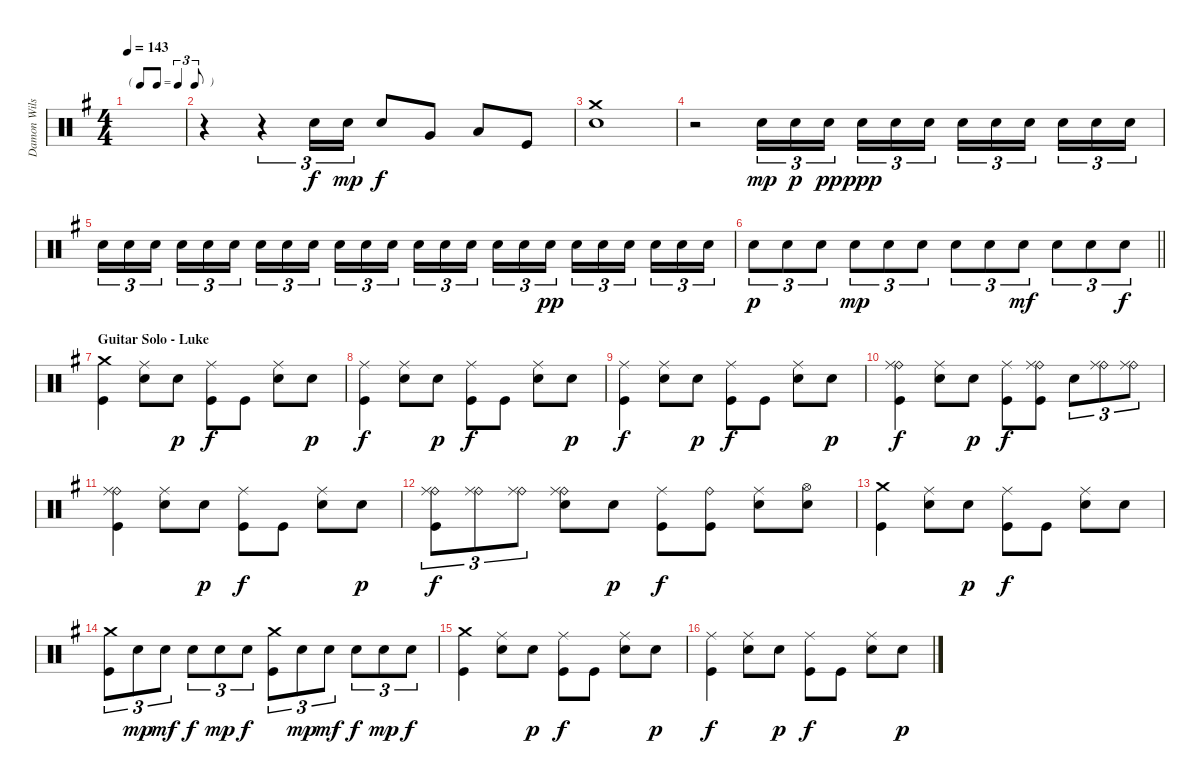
\track ("Damon Wilson" "Damon Wils") {instrument percussion}
\staff {score}
\articulation defaults
\ts (4 4)
\tf triplet8th
\tempo 143
\clef neutral
\ks g
|
r.4 r.4{tu (3 2)} "Electric Snare (hit)".16{tu (3 2)} "Electric Snare (hit)".16{tu (3 2) dy mp} "Electric Snare (hit)".8{dy f} "Very Low Tom (hit)".8 "Low Floor Tom (hit)".8 "Kick (hit)".8 |
("Crash medium (hit)" "Electric Snare (hit)").1 |
r.2 "Electric Snare (hit)".16{tu (3 2) dy mp} "Electric Snare (hit)".16{tu (3 2) dy p} "Electric Snare (hit)".16{tu (3 2) dy pp beam splitsecondary} "Electric Snare (hit)".16{tu (3 2) dy ppp} "Electric Snare (hit)".16{tu (3 2)} "Electric Snare (hit)".16{tu (3 2)} "Electric Snare (hit)".16{tu (3 2)} "Electric Snare (hit)".16{tu (3 2)} "Electric Snare (hit)".16{tu (3 2) beam splitsecondary} "Electric Snare (hit)".16{tu (3 2)} "Electric Snare (hit)".16{tu (3 2)} "Electric Snare (hit)".16{tu (3 2)} |
"Electric Snare (hit)".16{tu (3 2)} "Electric Snare (hit)".16{tu (3 2)} "Electric Snare (hit)".16{tu (3 2) beam splitsecondary} "Electric Snare (hit)".16{tu (3 2)} "Electric Snare (hit)".16{tu (3 2)} "Electric Snare (hit)".16{tu (3 2)} "Electric Snare (hit)".16{tu (3 2)} "Electric Snare (hit)".16{tu (3 2)} "Electric Snare (hit)".16{tu (3 2) beam splitsecondary} "Electric Snare (hit)".16{tu (3 2)} "Electric Snare (hit)".16{tu (3 2)} "Electric Snare (hit)".16{tu (3 2)} "Electric Snare (hit)".16{tu (3 2)} "Electric Snare (hit)".16{tu (3 2)} "Electric Snare (hit)".16{tu (3 2) beam splitsecondary} "Electric Snare (hit)".16{tu (3 2)} "Electric Snare (hit)".16{tu (3 2)} "Electric Snare (hit)".16{tu (3 2) dy pp} "Electric Snare (hit)".16{tu (3 2)} "Electric Snare (hit)".16{tu (3 2)} "Electric Snare (hit)".16{tu (3 2) beam splitsecondary} "Electric Snare (hit)".16{tu (3 2)} "Electric Snare (hit)".16{tu (3 2)} "Electric Snare (hit)".16{tu (3 2)} |
\barLineRight lightlight "Electric Snare (hit)".8{tu (3 2) dy p} "Electric Snare (hit)".8{tu (3 2)} "Electric Snare (hit)".8{tu (3 2)} "Electric Snare (hit)".8{tu (3 2) dy mp} "Electric Snare (hit)".8{tu (3 2)} "Electric Snare (hit)".8{tu (3 2)} "Electric Snare (hit)".8{tu (3 2)} "Electric Snare (hit)".8{tu (3 2)} "Electric Snare (hit)".8{tu (3 2) dy mf} "Electric Snare (hit)".8{tu (3 2)} "Electric Snare (hit)".8{tu (3 2)} "Electric Snare (hit)".8{tu (3 2) dy f}
|
\section ("" "Guitar Solo - Luke")
("Crash medium (hit)" "Kick (hit)").4 ("Ride (middle)" "Electric Snare (hit)").8 "Electric Snare (hit)".8{dy p} ("Ride (middle)" "Kick (hit)").8{dy f} "Kick (hit)".8 ("Ride (middle)" "Electric Snare (hit)").8 "Electric Snare (hit)".8{dy p} |
("Ride (middle)" "Kick (hit)").4{dy f} ("Ride (middle)" "Electric Snare (hit)").8 "Electric Snare (hit)".8{dy p} ("Ride (middle)" "Kick (hit)").8{dy f} "Kick (hit)".8 ("Ride (middle)" "Electric Snare (hit)").8 "Electric Snare (hit)".8{dy p} |
("Ride (middle)" "Kick (hit)").4{dy f} ("Ride (middle)" "Electric Snare (hit)").8 "Electric Snare (hit)".8{dy p} ("Ride (middle)" "Kick (hit)").8{dy f} "Kick (hit)".8 ("Ride (middle)" "Electric Snare (hit)").8 "Electric Snare (hit)".8{dy p} |
("Ride (bell)" "Ride (middle)" "Kick (hit)").4{dy f} ("Ride (middle)" "Electric Snare (hit)").8 "Electric Snare (hit)".8{dy p} ("Ride (middle)" "Kick (hit)").8{dy f} ("Ride (bell)" "Ride (middle)" "Kick (hit)").8 "Electric Snare (hit)".8{tu (3 2)} ("Ride (bell)" "Ride (middle)").8{tu (3 2)} ("Ride (bell)" "Ride (middle)").8{tu (3 2)} |
("Ride (bell)" "Ride (middle)" "Kick (hit)").4 ("Ride (middle)" "Electric Snare (hit)").8 "Electric Snare (hit)".8{dy p} ("Ride (middle)" "Kick (hit)").8{dy f} "Kick (hit)".8 ("Ride (middle)" "Electric Snare (hit)").8 "Electric Snare (hit)".8{dy p} |
("Ride (bell)" "Ride (middle)" "Kick (hit)").8{tu (3 2) dy f} ("Ride (bell)" "Ride (middle)").8{tu (3 2)} ("Ride (bell)" "Ride (middle)").8{tu (3 2)} ("Ride (bell)" "Ride (middle)" "Electric Snare (hit)").8 "Electric Snare (hit)".8{dy p} ("Ride (middle)" "Kick (hit)").8{dy f} ("Ride (bell)" "Kick (hit)").8 ("Ride (middle)" "Electric Snare (hit)").8 ("Hi-Hat (open)" "Electric Snare (hit)").8 |
("Crash medium (hit)" "Kick (hit)").4 ("Ride (middle)" "Electric Snare (hit)").8 "Electric Snare (hit)".8{dy p} ("Ride (middle)" "Kick (hit)").8{dy f} "Kick (hit)".8 ("Ride (middle)" "Electric Snare (hit)").8 "Electric Snare (hit)".8 |
("Crash medium (hit)" "Kick (hit)").8{tu (3 2)} "Electric Snare (hit)".8{tu (3 2) dy mp} "Electric Snare (hit)".8{tu (3 2) dy mf} "Electric Snare (hit)".8{tu (3 2) dy f} "Electric Snare (hit)".8{tu (3 2) dy mp} "Electric Snare (hit)".8{tu (3 2) dy f} ("Crash medium (hit)" "Kick (hit)").8{tu (3 2)} "Electric Snare (hit)".8{tu (3 2) dy mp} "Electric Snare (hit)".8{tu (3 2) dy mf} "Electric Snare (hit)".8{tu (3 2) dy f} "Electric Snare (hit)".8{tu (3 2) dy mp} "Electric Snare (hit)".8{tu (3 2) dy f} |
("Crash medium (hit)" "Kick (hit)").4 ("Ride (middle)" "Electric Snare (hit)").8 "Electric Snare (hit)".8{dy p} ("Ride (middle)" "Kick (hit)").8{dy f} "Kick (hit)".8 ("Ride (middle)" "Electric Snare (hit)").8 "Electric Snare (hit)".8{dy p} |
("Ride (middle)" "Kick (hit)").4{dy f} ("Ride (middle)" "Electric Snare (hit)").8 "Electric Snare (hit)".8{dy p} ("Ride (middle)" "Kick (hit)").8{dy f} "Kick (hit)".8 ("Ride (middle)" "Electric Snare (hit)").8 "Electric Snare (hit)".8{dy p}
